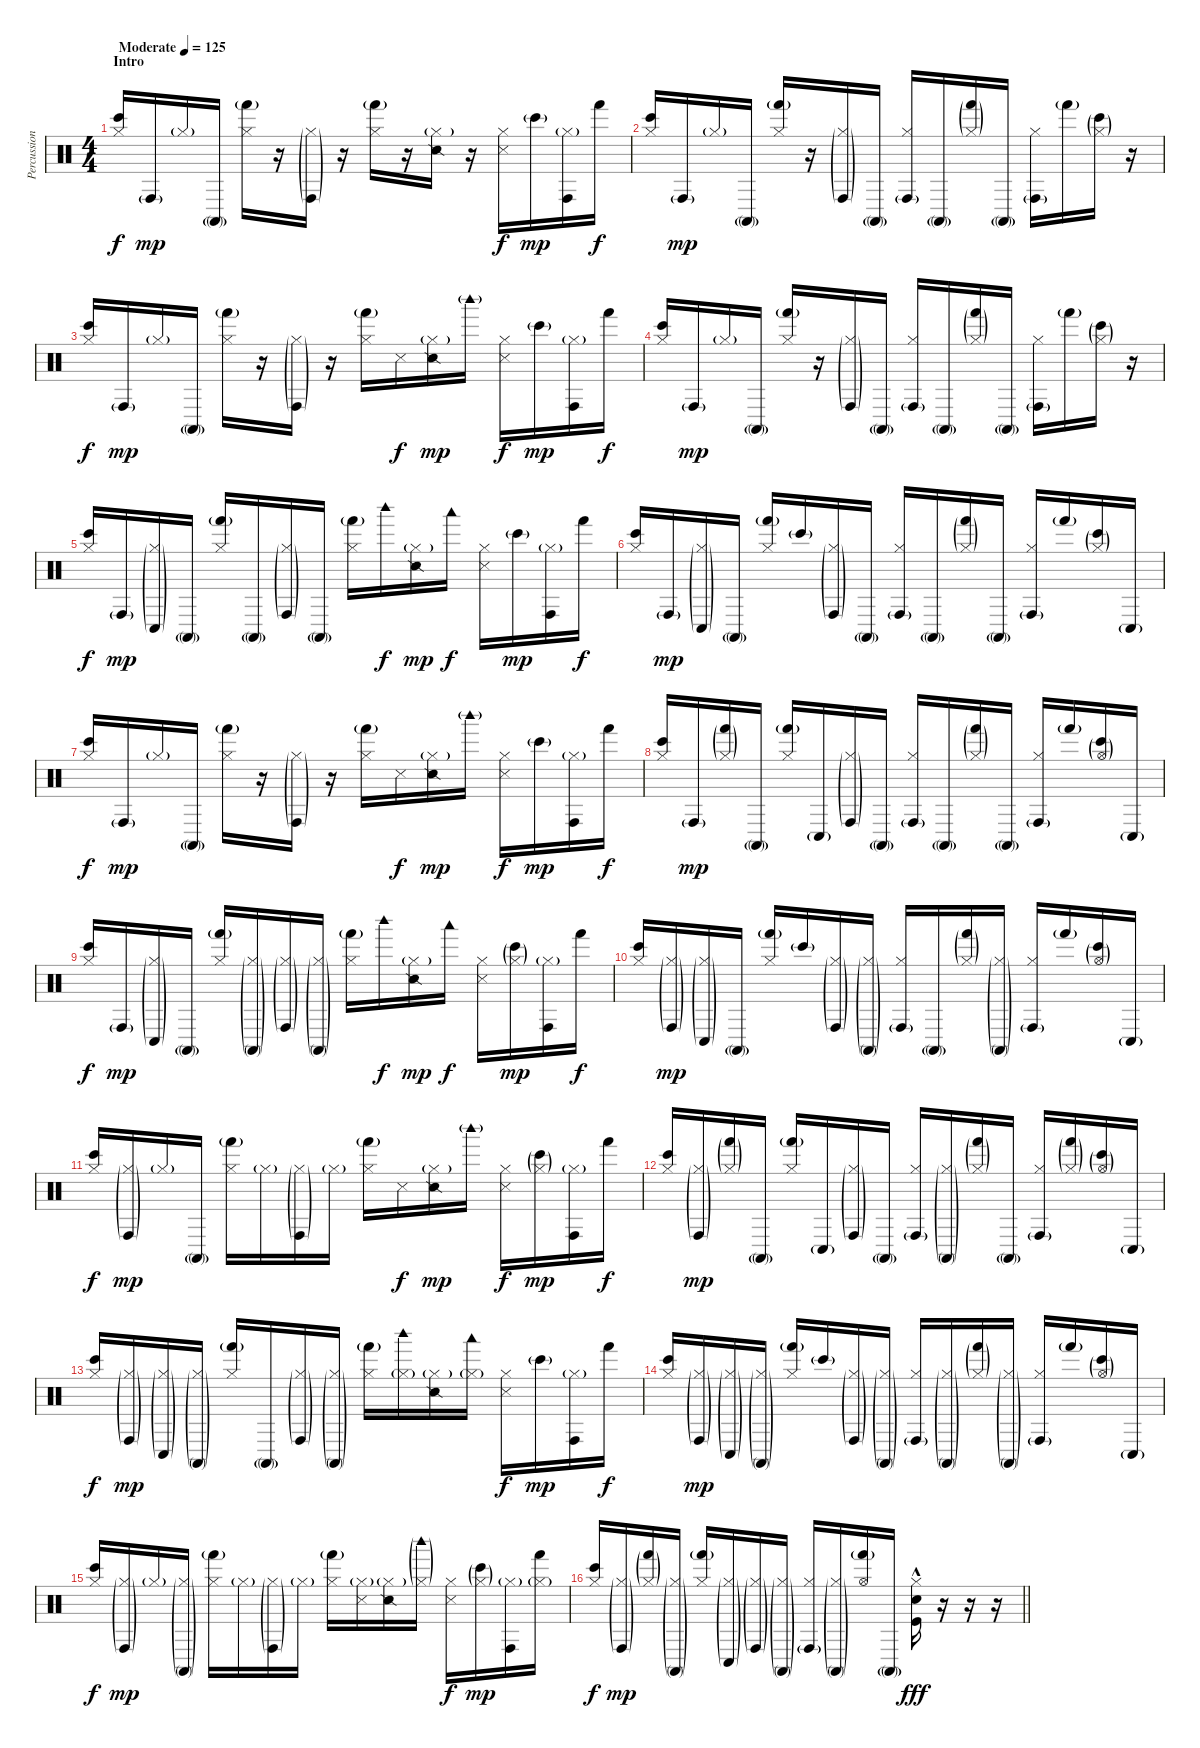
\track ("Percussion" "Percussion") {instrument percussion}
\staff {score}
\articulation defaults
\ts (4 4)
\section ("" "Intro")
\tempo (125 "Moderate")
\clef neutral
\ks c
("Hi-Hat (closed)" "Bongo High (hit)").16{dy f} "Conga high (hit)"{g}.16{dy mp} "Hi-Hat (closed)"{g}.16 "Conga high (mute)"{g}.16 ("Hi-Hat (closed)" "Hand (hit)"{g}).16 r.16 ("Hi-Hat (closed)"{g} "Conga high (hit)"{g}).16 r.16 ("Hi-Hat (closed)" "Hand (hit)"{g}).16 r.16 ("Hi-Hat (closed)"{g} "Snare (side stick) 2").16 r.16 ("Hi-Hat (closed)" "Snare (side stick) 3").16{dy f} "Bongo High (hit)"{g}.16{dy mp} ("Hi-Hat (closed)"{g} "Conga high (hit)").16 "Hand (hit)".16{dy f} |
("Hi-Hat (closed)" "Bongo High (hit)").16 "Conga high (hit)"{g}.16{dy mp} "Hi-Hat (closed)"{g}.16 "Conga high (mute)"{g}.16 ("Hi-Hat (closed)" "Hand (hit)"{g}).16 r.16 ("Hi-Hat (closed)"{g} "Conga high (hit)"{g}).16 "Conga high (mute)"{g}.16 ("Hi-Hat (closed)" "Conga high (hit)"{g}).16 "Conga high (mute)"{g}.16 ("Hi-Hat (closed)"{g} "Hand (hit)"{g}).16 "Conga high (mute)"{g}.16 ("Hi-Hat (closed)" "Conga high (hit)"{g}).16 "Hand (hit)"{g}.16 ("Hi-Hat (closed)"{g} "Bongo High (hit)"{g}).16 r.16 |
("Hi-Hat (closed)" "Bongo High (hit)").16{dy f} "Conga high (hit)"{g}.16{dy mp} "Hi-Hat (closed)"{g}.16 "Conga high (mute)"{g}.16 ("Hi-Hat (closed)" "Hand (hit)"{g}).16 r.16 ("Hi-Hat (closed)"{g} "Conga high (hit)"{g}).16 r.16 ("Hi-Hat (closed)" "Hand (hit)"{g}).16 "Snare (side stick) 3".16{dy f} ("Hi-Hat (closed)"{g} "Snare (side stick) 2").16{dy mp} "Woodblock high (hit)"{g}.16 ("Hi-Hat (closed)" "Snare (side stick) 3").16{dy f} "Bongo High (hit)"{g}.16{dy mp} ("Hi-Hat (closed)"{g} "Conga high (hit)").16 "Hand (hit)".16{dy f} |
("Hi-Hat (closed)" "Bongo High (hit)").16 "Conga high (hit)"{g}.16{dy mp} "Hi-Hat (closed)"{g}.16 "Conga high (mute)"{g}.16 ("Hi-Hat (closed)" "Hand (hit)"{g}).16 r.16 ("Hi-Hat (closed)"{g} "Conga high (hit)"{g}).16 "Conga high (mute)"{g}.16 ("Hi-Hat (closed)" "Conga high (hit)"{g}).16 "Conga high (mute)"{g}.16 ("Hi-Hat (closed)"{g} "Hand (hit)"{g}).16 "Conga high (mute)"{g}.16 ("Hi-Hat (closed)" "Conga high (hit)"{g}).16 "Hand (hit)"{g}.16 ("Hi-Hat (closed)"{g} "Bongo High (hit)"{g}).16 r.16 |
("Hi-Hat (closed)" "Bongo High (hit)").16{dy f} "Conga high (hit)"{g}.16{dy mp} ("Hi-Hat (closed)"{g} "Conga low (hit)"{g}).16 "Conga high (mute)"{g}.16 ("Hi-Hat (closed)" "Hand (hit)"{g}).16 "Conga high (mute)"{g}.16 ("Hi-Hat (closed)"{g} "Conga high (hit)"{g}).16 "Conga high (mute)"{g}.16 ("Hi-Hat (closed)" "Hand (hit)"{g}).16 "Woodblock high (hit)".16{dy f} ("Hi-Hat (closed)"{g} "Snare (side stick) 2").16{dy mp} "Woodblock low (hit)".16{dy f} ("Hi-Hat (closed)" "Snare (side stick) 3").16 "Bongo High (hit)"{g}.16{dy mp} ("Hi-Hat (closed)"{g} "Conga high (hit)").16 "Hand (hit)".16{dy f} |
("Hi-Hat (closed)" "Bongo High (hit)").16 "Conga high (hit)"{g}.16{dy mp} ("Hi-Hat (closed)"{g} "Conga low (hit)"{g}).16 "Conga high (mute)"{g}.16 ("Hi-Hat (closed)" "Hand (hit)"{g}).16 "Bongo High (hit)"{g}.16 ("Hi-Hat (closed)"{g} "Conga high (hit)"{g}).16 "Conga high (mute)"{g}.16 ("Hi-Hat (closed)" "Conga high (hit)"{g}).16 "Conga high (mute)"{g}.16 ("Hi-Hat (closed)"{g} "Hand (hit)"{g}).16 "Conga high (mute)"{g}.16 ("Hi-Hat (closed)" "Conga high (hit)"{g}).16 "Hand (hit)"{g}.16 ("Hi-Hat (closed)"{g} "Bongo High (hit)"{g}).16 "Conga low (hit)"{g}.16 |
("Hi-Hat (closed)" "Bongo High (hit)").16{dy f} "Conga high (hit)"{g}.16{dy mp} "Hi-Hat (closed)"{g}.16 "Conga high (mute)"{g}.16 ("Hi-Hat (closed)" "Hand (hit)"{g}).16 r.16 ("Hi-Hat (closed)"{g} "Conga high (hit)"{g}).16 r.16 ("Hi-Hat (closed)" "Hand (hit)"{g}).16 "Snare (side stick) 3".16{dy f} ("Hi-Hat (closed)"{g} "Snare (side stick) 2").16{dy mp} "Woodblock high (hit)"{g}.16 ("Hi-Hat (closed)" "Snare (side stick) 3").16{dy f} "Bongo High (hit)"{g}.16{dy mp} ("Hi-Hat (closed)"{g} "Conga high (hit)").16 "Hand (hit)".16{dy f} |
("Hi-Hat (closed)" "Bongo High (hit)").16 "Conga high (hit)"{g}.16{dy mp} ("Hi-Hat (closed)"{g} "Hand (hit)"{g}).16 "Conga high (mute)"{g}.16 ("Hi-Hat (closed)" "Hand (hit)"{g}).16 "Conga low (hit)"{g}.16 ("Hi-Hat (closed)"{g} "Conga high (hit)"{g}).16 "Conga high (mute)"{g}.16 ("Hi-Hat (closed)" "Conga high (hit)"{g}).16 "Conga high (mute)"{g}.16 ("Hi-Hat (closed)"{g} "Hand (hit)"{g}).16 "Conga high (mute)"{g}.16 ("Hi-Hat (closed)" "Conga high (hit)"{g}).16 "Hand (hit)"{g}.16 ("Hi-Hat (open)"{g} "Bongo High (hit)"{g}).16 "Conga low (hit)"{g}.16 |
("Hi-Hat (closed)" "Bongo High (hit)").16{dy f} "Conga high (hit)"{g}.16{dy mp} ("Hi-Hat (closed)"{g} "Conga low (hit)"{g}).16 "Conga high (mute)"{g}.16 ("Hi-Hat (closed)" "Hand (hit)"{g}).16 ("Hi-Hat (closed)"{g} "Conga high (mute)"{g}).16 ("Hi-Hat (closed)"{g} "Conga high (hit)"{g}).16 ("Hi-Hat (closed)"{g} "Conga high (mute)"{g}).16 ("Hi-Hat (closed)" "Hand (hit)"{g}).16 "Woodblock high (hit)".16{dy f} ("Hi-Hat (closed)"{g} "Snare (side stick) 2").16{dy mp} "Woodblock low (hit)".16{dy f} ("Hi-Hat (closed)" "Snare (side stick) 3").16 ("Hi-Hat (closed)"{g} "Bongo High (hit)"{g}).16{dy mp} ("Hi-Hat (closed)"{g} "Conga high (hit)").16 "Hand (hit)".16{dy f} |
("Hi-Hat (closed)" "Bongo High (hit)").16 ("Hi-Hat (closed)"{g} "Conga high (hit)"{g}).16{dy mp} ("Hi-Hat (closed)"{g} "Conga low (hit)"{g}).16 "Conga high (mute)"{g}.16 ("Hi-Hat (closed)" "Hand (hit)"{g}).16 "Bongo High (hit)"{g}.16 ("Hi-Hat (closed)"{g} "Conga high (hit)"{g}).16 ("Hi-Hat (closed)"{g} "Conga high (mute)"{g}).16 ("Hi-Hat (closed)" "Conga high (hit)"{g}).16 "Conga high (mute)"{g}.16 ("Hi-Hat (closed)"{g} "Hand (hit)"{g}).16 ("Hi-Hat (closed)"{g} "Conga high (mute)"{g}).16 ("Hi-Hat (closed)" "Conga high (hit)"{g}).16 "Hand (hit)"{g}.16 ("Hi-Hat (open)"{g} "Bongo High (hit)"{g}).16 "Conga low (hit)"{g}.16 |
("Hi-Hat (closed)" "Bongo High (hit)").16{dy f} ("Hi-Hat (closed)"{g} "Conga high (hit)"{g}).16{dy mp} "Hi-Hat (closed)"{g}.16 "Conga high (mute)"{g}.16 ("Hi-Hat (closed)" "Hand (hit)"{g}).16 "Hi-Hat (closed)"{g}.16 ("Hi-Hat (closed)"{g} "Conga high (hit)"{g}).16 "Hi-Hat (closed)"{g}.16 ("Hi-Hat (closed)" "Hand (hit)"{g}).16 "Snare (side stick) 3".16{dy f} ("Hi-Hat (closed)"{g} "Snare (side stick) 2").16{dy mp} "Woodblock high (hit)"{g}.16 ("Hi-Hat (closed)" "Snare (side stick) 3").16{dy f} ("Hi-Hat (closed)"{g} "Bongo High (hit)"{g}).16{dy mp} ("Hi-Hat (closed)"{g} "Conga high (hit)").16 "Hand (hit)".16{dy f} |
("Hi-Hat (closed)" "Bongo High (hit)").16 ("Hi-Hat (closed)"{g} "Conga high (hit)"{g}).16{dy mp} ("Hi-Hat (closed)"{g} "Hand (hit)"{g}).16 "Conga high (mute)"{g}.16 ("Hi-Hat (closed)" "Hand (hit)"{g}).16 "Conga low (hit)"{g}.16 ("Hi-Hat (closed)"{g} "Conga high (hit)"{g}).16 "Conga high (mute)"{g}.16 ("Hi-Hat (closed)" "Conga high (hit)"{g}).16 ("Hi-Hat (closed)"{g} "Conga high (mute)"{g}).16 ("Hi-Hat (closed)"{g} "Hand (hit)"{g}).16 "Conga high (mute)"{g}.16 ("Hi-Hat (closed)" "Conga high (hit)"{g}).16 ("Hi-Hat (closed)"{g} "Hand (hit)"{g}).16 ("Hi-Hat (open)"{g} "Bongo High (hit)"{g}).16 "Conga low (hit)"{g}.16 |
("Hi-Hat (closed)" "Bongo High (hit)").16{dy f} ("Hi-Hat (closed)"{g} "Conga high (hit)"{g}).16{dy mp} ("Hi-Hat (closed)"{g} "Conga low (hit)"{g}).16 ("Hi-Hat (closed)"{g} "Conga high (mute)"{g}).16 ("Hi-Hat (closed)" "Hand (hit)"{g}).16 "Conga high (mute)"{g}.16 ("Hi-Hat (closed)"{g} "Conga high (hit)"{g}).16 ("Hi-Hat (closed)"{g} "Conga high (mute)"{g}).16 ("Hi-Hat (closed)" "Hand (hit)"{g}).16 ("Hi-Hat (closed)"{g} "Woodblock high (hit)").16 ("Hi-Hat (closed)"{g} "Snare (side stick) 2").16 ("Hi-Hat (closed)"{g} "Woodblock low (hit)").16 ("Hi-Hat (closed)" "Snare (side stick) 3").16{dy f} "Bongo High (hit)"{g}.16{dy mp} ("Hi-Hat (closed)"{g} "Conga high (hit)").16 "Hand (hit)".16{dy f} |
("Hi-Hat (closed)" "Bongo High (hit)").16 ("Hi-Hat (closed)"{g} "Conga high (hit)"{g}).16{dy mp} ("Hi-Hat (closed)"{g} "Conga low (hit)"{g}).16 ("Hi-Hat (closed)"{g} "Conga high (mute)"{g}).16 ("Hi-Hat (closed)" "Hand (hit)"{g}).16 "Bongo High (hit)"{g}.16 ("Hi-Hat (closed)"{g} "Conga high (hit)"{g}).16 ("Hi-Hat (closed)"{g} "Conga high (mute)"{g}).16 ("Hi-Hat (closed)" "Conga high (hit)"{g}).16 ("Hi-Hat (closed)"{g} "Conga high (mute)"{g}).16 ("Hi-Hat (closed)"{g} "Hand (hit)"{g}).16 ("Hi-Hat (closed)"{g} "Conga high (mute)"{g}).16 ("Hi-Hat (closed)" "Conga high (hit)"{g}).16 "Hand (hit)"{g}.16 ("Hi-Hat (open)"{g} "Bongo High (hit)"{g}).16 "Conga low (hit)"{g}.16 |
("Hi-Hat (closed)" "Bongo High (hit)").16{dy f} ("Hi-Hat (closed)"{g} "Conga high (hit)"{g}).16{dy mp} "Hi-Hat (closed)"{g}.16 ("Hi-Hat (closed)"{g} "Conga high (mute)"{g}).16 ("Hi-Hat (closed)" "Hand (hit)"{g}).16 "Hi-Hat (closed)"{g}.16 ("Hi-Hat (closed)"{g} "Conga high (hit)"{g}).16 "Hi-Hat (closed)"{g}.16 ("Hi-Hat (closed)" "Hand (hit)"{g}).16 ("Hi-Hat (closed)"{g} "Snare (side stick) 3").16 ("Hi-Hat (closed)"{g} "Snare (side stick) 2").16 ("Hi-Hat (closed)"{g} "Woodblock high (hit)"{g}).16 ("Hi-Hat (closed)" "Snare (side stick) 3").16{dy f} ("Hi-Hat (closed)"{g} "Bongo High (hit)"{g}).16{dy mp} ("Hi-Hat (closed)"{g} "Conga high (hit)").16 ("Hi-Hat (closed)"{g} "Hand (hit)").16 |
\barLineRight lightlight
("Hi-Hat (closed)" "Bongo High (hit)").16{dy f} ("Hi-Hat (closed)"{g} "Conga high (hit)"{g}).16{dy mp} ("Hi-Hat (closed)"{g} "Hand (hit)"{g}).16 ("Hi-Hat (closed)"{g} "Conga high (mute)"{g}).16 ("Hi-Hat (closed)" "Hand (hit)"{g}).16 ("Hi-Hat (closed)"{g} "Conga low (hit)"{g}).16 ("Hi-Hat (closed)"{g} "Conga high (hit)"{g}).16 ("Hi-Hat (closed)"{g} "Conga high (mute)"{g}).16 ("Hi-Hat (closed)" "Conga high (hit)"{g}).16 ("Hi-Hat (closed)"{g} "Conga high (mute)"{g}).16 ("Hi-Hat (open)" "Hand (hit)"{g}).16 "Conga high (mute)"{g}.16 ("Hi-Hat (closed)"{hac} "Snare (hit) 2" "Kick (hit)"{hac}).16{dy fff} r.16 r.16 r.16
